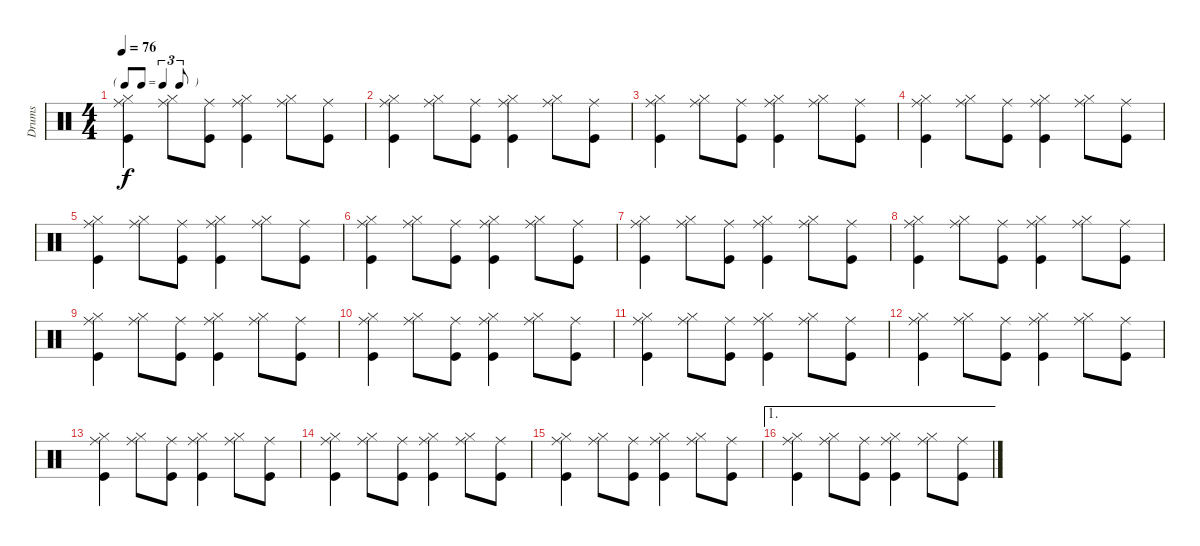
\track ("Drums" "Drums") {instrument percussion}
\staff {score}
\articulation defaults
\ts (4 4)
\tf triplet8th
\tempo 76
\clef neutral
\ks c
("Kick (hit)" "Hi-Hat (closed)" "Ride (middle)").4{dy f} ("Hi-Hat (closed)" "Ride (middle)").8 ("Kick (hit)" "Ride (middle)").8 ("Hi-Hat (closed)" "Ride (middle)" "Kick (hit)").4 ("Hi-Hat (closed)" "Ride (middle)").8 ("Kick (hit)" "Ride (middle)").8 |
("Kick (hit)" "Hi-Hat (closed)" "Ride (middle)").4 ("Hi-Hat (closed)" "Ride (middle)").8 ("Kick (hit)" "Ride (middle)").8 ("Hi-Hat (closed)" "Ride (middle)" "Kick (hit)").4 ("Hi-Hat (closed)" "Ride (middle)").8 ("Kick (hit)" "Ride (middle)").8 |
("Kick (hit)" "Hi-Hat (closed)" "Ride (middle)").4 ("Hi-Hat (closed)" "Ride (middle)").8 ("Kick (hit)" "Ride (middle)").8 ("Hi-Hat (closed)" "Ride (middle)" "Kick (hit)").4 ("Hi-Hat (closed)" "Ride (middle)").8 ("Kick (hit)" "Ride (middle)").8 |
("Kick (hit)" "Hi-Hat (closed)" "Ride (middle)").4 ("Hi-Hat (closed)" "Ride (middle)").8 ("Kick (hit)" "Ride (middle)").8 ("Hi-Hat (closed)" "Ride (middle)" "Kick (hit)").4 ("Hi-Hat (closed)" "Ride (middle)").8 ("Kick (hit)" "Ride (middle)").8 |
("Kick (hit)" "Hi-Hat (closed)" "Ride (middle)").4 ("Hi-Hat (closed)" "Ride (middle)").8 ("Kick (hit)" "Ride (middle)").8 ("Hi-Hat (closed)" "Ride (middle)" "Kick (hit)").4 ("Hi-Hat (closed)" "Ride (middle)").8 ("Kick (hit)" "Ride (middle)").8 |
("Kick (hit)" "Hi-Hat (closed)" "Ride (middle)").4 ("Hi-Hat (closed)" "Ride (middle)").8 ("Kick (hit)" "Ride (middle)").8 ("Hi-Hat (closed)" "Ride (middle)" "Kick (hit)").4 ("Hi-Hat (closed)" "Ride (middle)").8 ("Kick (hit)" "Ride (middle)").8 |
("Kick (hit)" "Hi-Hat (closed)" "Ride (middle)").4 ("Hi-Hat (closed)" "Ride (middle)").8 ("Kick (hit)" "Ride (middle)").8 ("Hi-Hat (closed)" "Ride (middle)" "Kick (hit)").4 ("Hi-Hat (closed)" "Ride (middle)").8 ("Kick (hit)" "Ride (middle)").8 |
("Kick (hit)" "Hi-Hat (closed)" "Ride (middle)").4 ("Hi-Hat (closed)" "Ride (middle)").8 ("Kick (hit)" "Ride (middle)").8 ("Hi-Hat (closed)" "Ride (middle)" "Kick (hit)").4 ("Hi-Hat (closed)" "Ride (middle)").8 ("Kick (hit)" "Ride (middle)").8 |
("Kick (hit)" "Hi-Hat (closed)" "Ride (middle)").4 ("Hi-Hat (closed)" "Ride (middle)").8 ("Kick (hit)" "Ride (middle)").8 ("Hi-Hat (closed)" "Ride (middle)" "Kick (hit)").4 ("Hi-Hat (closed)" "Ride (middle)").8 ("Kick (hit)" "Ride (middle)").8 |
("Kick (hit)" "Hi-Hat (closed)" "Ride (middle)").4 ("Hi-Hat (closed)" "Ride (middle)").8 ("Kick (hit)" "Ride (middle)").8 ("Hi-Hat (closed)" "Ride (middle)" "Kick (hit)").4 ("Hi-Hat (closed)" "Ride (middle)").8 ("Kick (hit)" "Ride (middle)").8 |
("Kick (hit)" "Hi-Hat (closed)" "Ride (middle)").4 ("Hi-Hat (closed)" "Ride (middle)").8 ("Kick (hit)" "Ride (middle)").8 ("Hi-Hat (closed)" "Ride (middle)" "Kick (hit)").4 ("Hi-Hat (closed)" "Ride (middle)").8 ("Kick (hit)" "Ride (middle)").8 |
("Kick (hit)" "Hi-Hat (closed)" "Ride (middle)").4 ("Hi-Hat (closed)" "Ride (middle)").8 ("Kick (hit)" "Ride (middle)").8 ("Hi-Hat (closed)" "Ride (middle)" "Kick (hit)").4 ("Hi-Hat (closed)" "Ride (middle)").8 ("Kick (hit)" "Ride (middle)").8 |
("Kick (hit)" "Hi-Hat (closed)" "Ride (middle)").4 ("Hi-Hat (closed)" "Ride (middle)").8 ("Kick (hit)" "Ride (middle)").8 ("Hi-Hat (closed)" "Ride (middle)" "Kick (hit)").4 ("Hi-Hat (closed)" "Ride (middle)").8 ("Kick (hit)" "Ride (middle)").8 |
("Kick (hit)" "Hi-Hat (closed)" "Ride (middle)").4 ("Hi-Hat (closed)" "Ride (middle)").8 ("Kick (hit)" "Ride (middle)").8 ("Hi-Hat (closed)" "Ride (middle)" "Kick (hit)").4 ("Hi-Hat (closed)" "Ride (middle)").8 ("Kick (hit)" "Ride (middle)").8 |
("Kick (hit)" "Hi-Hat (closed)" "Ride (middle)").4 ("Hi-Hat (closed)" "Ride (middle)").8 ("Kick (hit)" "Ride (middle)").8 ("Hi-Hat (closed)" "Ride (middle)" "Kick (hit)").4 ("Hi-Hat (closed)" "Ride (middle)").8 ("Kick (hit)" "Ride (middle)").8 |
\ae 1
("Kick (hit)" "Hi-Hat (closed)" "Ride (middle)").4 ("Hi-Hat (closed)" "Ride (middle)").8 ("Kick (hit)" "Ride (middle)").8 ("Hi-Hat (closed)" "Ride (middle)" "Kick (hit)").4 ("Hi-Hat (closed)" "Ride (middle)").8 ("Kick (hit)" "Ride (middle)").8
